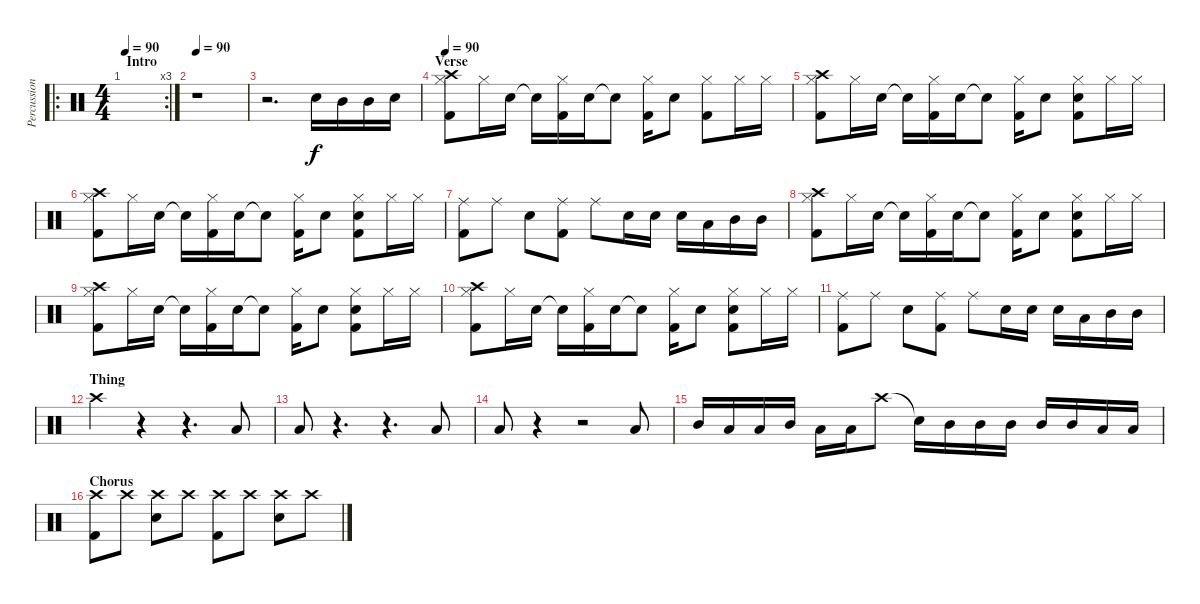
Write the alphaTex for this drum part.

\track ("Percussion" "Percussion") {instrument percussion}
\staff {score}
\articulation defaults
\ro
\rc 3
\ts (4 4)
\section ("" "Intro")
\tempo 90
\tempo 114
\tempo 90
\clef neutral
\ks c
|
\tempo 90
r.1 |
r.2{d} "Electric Snare (hit)".16 "Mid Tom (hit)".16 "Mid Tom (hit)".16 "Electric Snare (hit)".16 |
\section ("" "Verse")
\tempo 90
("Crash high (hit)" "Hi-Hat (closed)" "Kick (hit) 2").8 "Hi-Hat (closed)".16 "Electric Snare (hit)".16 "Snare (hit)"{t}.16 ("Hi-Hat (closed)" "Kick (hit) 2").16 "Electric Snare (hit)".16 "Snare (hit)"{t}.8 ("Hi-Hat (closed)" "Kick (hit) 2").16 "Electric Snare (hit)".8 ("Hi-Hat (closed)" "Kick (hit) 2").8 "Hi-Hat (closed)".16 "Hi-Hat (closed)".16 |
("Crash high (hit)" "Hi-Hat (closed)" "Kick (hit) 2").8 "Hi-Hat (closed)".16 "Electric Snare (hit)".16 "Snare (hit)"{t}.16 ("Hi-Hat (closed)" "Kick (hit) 2").16 "Electric Snare (hit)".16 "Snare (hit)"{t}.8 ("Hi-Hat (closed)" "Kick (hit) 2").16 "Electric Snare (hit)".8 ("Hi-Hat (closed)" "Electric Snare (hit)" "Kick (hit) 2").8 "Hi-Hat (closed)".16 "Hi-Hat (closed)".16 |
("Crash high (hit)" "Hi-Hat (closed)" "Kick (hit) 2").8 "Hi-Hat (closed)".16 "Electric Snare (hit)".16 "Snare (hit)"{t}.16 ("Hi-Hat (closed)" "Kick (hit) 2").16 "Electric Snare (hit)".16 "Snare (hit)"{t}.8 ("Hi-Hat (closed)" "Kick (hit) 2").16 "Electric Snare (hit)".8 ("Hi-Hat (closed)" "Electric Snare (hit)" "Kick (hit) 2").8 "Hi-Hat (closed)".16 "Hi-Hat (closed)".16 |
("Ride (middle)" "Kick (hit) 2").8 "Ride (middle)".8 "Electric Snare (hit)".8 ("Ride (middle)" "Kick (hit) 2").8 "Ride (middle)".8 "Electric Snare (hit)".16 "Electric Snare (hit)".16 "Electric Snare (hit)".16 "Low Tom (hit)".16 "Mid Tom (hit)".16 "Mid Tom (hit)".16 |
("Crash high (hit)" "Hi-Hat (closed)" "Kick (hit) 2").8 "Hi-Hat (closed)".16 "Electric Snare (hit)".16 "Snare (hit)"{t}.16 ("Hi-Hat (closed)" "Kick (hit) 2").16 "Electric Snare (hit)".16 "Snare (hit)"{t}.8 ("Hi-Hat (closed)" "Kick (hit) 2").16 "Electric Snare (hit)".8 ("Hi-Hat (closed)" "Electric Snare (hit)" "Kick (hit) 2").8 "Hi-Hat (closed)".16 "Hi-Hat (closed)".16 |
("Crash high (hit)" "Hi-Hat (closed)" "Kick (hit) 2").8 "Hi-Hat (closed)".16 "Electric Snare (hit)".16 "Snare (hit)"{t}.16 ("Hi-Hat (closed)" "Kick (hit) 2").16 "Electric Snare (hit)".16 "Snare (hit)"{t}.8 ("Hi-Hat (closed)" "Kick (hit) 2").16 "Electric Snare (hit)".8 ("Hi-Hat (closed)" "Electric Snare (hit)" "Kick (hit) 2").8 "Hi-Hat (closed)".16 "Hi-Hat (closed)".16 |
("Crash high (hit)" "Hi-Hat (closed)" "Kick (hit) 2").8 "Hi-Hat (closed)".16 "Electric Snare (hit)".16 "Snare (hit)"{t}.16 ("Hi-Hat (closed)" "Kick (hit) 2").16 "Electric Snare (hit)".16 "Snare (hit)"{t}.8 ("Hi-Hat (closed)" "Kick (hit) 2").16 "Electric Snare (hit)".8 ("Hi-Hat (closed)" "Electric Snare (hit)" "Kick (hit) 2").8 "Hi-Hat (closed)".16 "Hi-Hat (closed)".16 |
("Ride (middle)" "Kick (hit) 2").8 "Ride (middle)".8 "Electric Snare (hit)".8 ("Ride (middle)" "Kick (hit) 2").8 "Ride (middle)".8 "Electric Snare (hit)".16 "Electric Snare (hit)".16 "Electric Snare (hit)".16 "Low Tom (hit)".16 "Mid Tom (hit)".16 "Mid Tom (hit)".16 |
\section ("" "Thing")
"Crash high (hit)".4 r.4 r.4{d} "Low Tom (hit)".8 |
"Low Tom (hit)".8 r.4{d} r.4{d} "Low Tom (hit)".8 |
"Low Tom (hit)".8 r.4 r.2 "Low Tom (hit)".8 |
"Mid Tom (hit)".16 "Low Tom (hit)".16 "Low Tom (hit)".16 "Mid Tom (hit)".16 "Low Tom (hit)".16 "Low Tom (hit)".16 "Crash high (hit)".8 "Snare (hit)"{t}.16 "Mid Tom (hit)".16 "Mid Tom (hit)".16 "Mid Tom (hit)".16 "Mid Tom (hit)".16 "Mid Tom (hit)".16 "Low Tom (hit)".16 "Low Tom (hit)".16 |
\section ("" "Chorus")
("Crash high (hit)" "Kick (hit) 2").8 "Crash high (hit)".8 ("Crash high (hit)" "Electric Snare (hit)").8 "Crash high (hit)".8 ("Crash high (hit)" "Kick (hit) 2").8 "Crash high (hit)".8 ("Crash high (hit)" "Electric Snare (hit)").8 "Crash high (hit)".8
